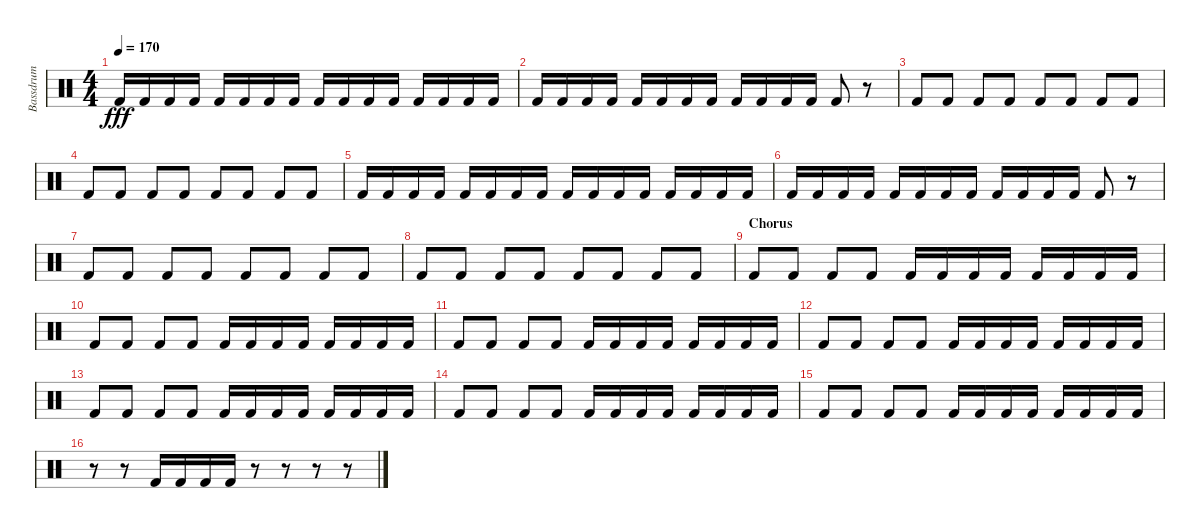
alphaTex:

\track ("Bassdrum" "Bassdrum") {instrument percussion}
\staff {score}
\articulation defaults
\ts (4 4)
\tempo 170
\clef neutral
\ks c "Kick (hit) 2".16{dy fff} "Kick (hit) 2".16 "Kick (hit) 2".16 "Kick (hit) 2".16 "Kick (hit) 2".16 "Kick (hit) 2".16 "Kick (hit) 2".16 "Kick (hit) 2".16 "Kick (hit) 2".16 "Kick (hit) 2".16 "Kick (hit) 2".16 "Kick (hit) 2".16 "Kick (hit) 2".16 "Kick (hit) 2".16 "Kick (hit) 2".16 "Kick (hit) 2".16
|
"Kick (hit) 2".16 "Kick (hit) 2".16 "Kick (hit) 2".16 "Kick (hit) 2".16 "Kick (hit) 2".16 "Kick (hit) 2".16 "Kick (hit) 2".16 "Kick (hit) 2".16 "Kick (hit) 2".16 "Kick (hit) 2".16 "Kick (hit) 2".16 "Kick (hit) 2".16 "Kick (hit) 2".8 r.8 |
"Kick (hit) 2".8 "Kick (hit) 2".8 "Kick (hit) 2".8 "Kick (hit) 2".8 "Kick (hit) 2".8 "Kick (hit) 2".8 "Kick (hit) 2".8 "Kick (hit) 2".8 |
"Kick (hit) 2".8 "Kick (hit) 2".8 "Kick (hit) 2".8 "Kick (hit) 2".8 "Kick (hit) 2".8 "Kick (hit) 2".8 "Kick (hit) 2".8 "Kick (hit) 2".8 |
"Kick (hit) 2".16 "Kick (hit) 2".16 "Kick (hit) 2".16 "Kick (hit) 2".16 "Kick (hit) 2".16 "Kick (hit) 2".16 "Kick (hit) 2".16 "Kick (hit) 2".16 "Kick (hit) 2".16 "Kick (hit) 2".16 "Kick (hit) 2".16 "Kick (hit) 2".16 "Kick (hit) 2".16 "Kick (hit) 2".16 "Kick (hit) 2".16 "Kick (hit) 2".16 |
"Kick (hit) 2".16 "Kick (hit) 2".16 "Kick (hit) 2".16 "Kick (hit) 2".16 "Kick (hit) 2".16 "Kick (hit) 2".16 "Kick (hit) 2".16 "Kick (hit) 2".16 "Kick (hit) 2".16 "Kick (hit) 2".16 "Kick (hit) 2".16 "Kick (hit) 2".16 "Kick (hit) 2".8 r.8 |
"Kick (hit) 2".8 "Kick (hit) 2".8 "Kick (hit) 2".8 "Kick (hit) 2".8 "Kick (hit) 2".8 "Kick (hit) 2".8 "Kick (hit) 2".8 "Kick (hit) 2".8 |
"Kick (hit) 2".8 "Kick (hit) 2".8 "Kick (hit) 2".8 "Kick (hit) 2".8 "Kick (hit) 2".8 "Kick (hit) 2".8 "Kick (hit) 2".8 "Kick (hit) 2".8 |
\section ("" "Chorus")
"Kick (hit) 2".8 "Kick (hit) 2".8 "Kick (hit) 2".8 "Kick (hit) 2".8 "Kick (hit) 2".16 "Kick (hit) 2".16 "Kick (hit) 2".16 "Kick (hit) 2".16 "Kick (hit) 2".16 "Kick (hit) 2".16 "Kick (hit) 2".16 "Kick (hit) 2".16 |
"Kick (hit) 2".8 "Kick (hit) 2".8 "Kick (hit) 2".8 "Kick (hit) 2".8 "Kick (hit) 2".16 "Kick (hit) 2".16 "Kick (hit) 2".16 "Kick (hit) 2".16 "Kick (hit) 2".16 "Kick (hit) 2".16 "Kick (hit) 2".16 "Kick (hit) 2".16 |
"Kick (hit) 2".8 "Kick (hit) 2".8 "Kick (hit) 2".8 "Kick (hit) 2".8 "Kick (hit) 2".16 "Kick (hit) 2".16 "Kick (hit) 2".16 "Kick (hit) 2".16 "Kick (hit) 2".16 "Kick (hit) 2".16 "Kick (hit) 2".16 "Kick (hit) 2".16 |
"Kick (hit) 2".8 "Kick (hit) 2".8 "Kick (hit) 2".8 "Kick (hit) 2".8 "Kick (hit) 2".16 "Kick (hit) 2".16 "Kick (hit) 2".16 "Kick (hit) 2".16 "Kick (hit) 2".16 "Kick (hit) 2".16 "Kick (hit) 2".16 "Kick (hit) 2".16 |
"Kick (hit) 2".8 "Kick (hit) 2".8 "Kick (hit) 2".8 "Kick (hit) 2".8 "Kick (hit) 2".16 "Kick (hit) 2".16 "Kick (hit) 2".16 "Kick (hit) 2".16 "Kick (hit) 2".16 "Kick (hit) 2".16 "Kick (hit) 2".16 "Kick (hit) 2".16 |
"Kick (hit) 2".8 "Kick (hit) 2".8 "Kick (hit) 2".8 "Kick (hit) 2".8 "Kick (hit) 2".16 "Kick (hit) 2".16 "Kick (hit) 2".16 "Kick (hit) 2".16 "Kick (hit) 2".16 "Kick (hit) 2".16 "Kick (hit) 2".16 "Kick (hit) 2".16 |
"Kick (hit) 2".8 "Kick (hit) 2".8 "Kick (hit) 2".8 "Kick (hit) 2".8 "Kick (hit) 2".16 "Kick (hit) 2".16 "Kick (hit) 2".16 "Kick (hit) 2".16 "Kick (hit) 2".16 "Kick (hit) 2".16 "Kick (hit) 2".16 "Kick (hit) 2".16 |
r.8 r.8 "Kick (hit) 2".16 "Kick (hit) 2".16 "Kick (hit) 2".16 "Kick (hit) 2".16 r.8 r.8 r.8 r.8
